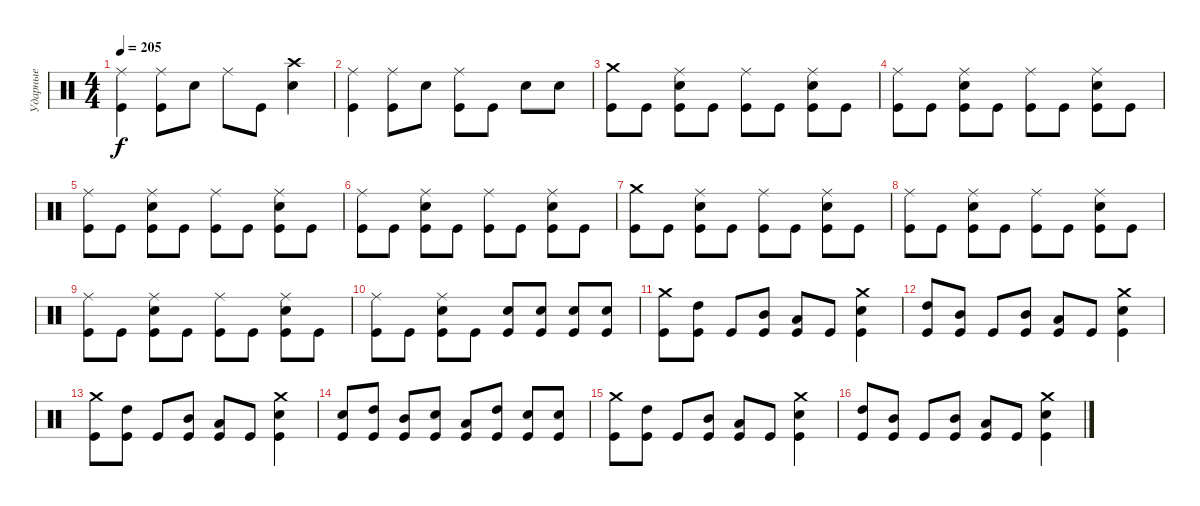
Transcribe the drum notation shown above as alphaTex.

\track ("Ударные" "Ударные") {instrument percussion}
\staff {score}
\articulation defaults
\ts (4 4)
\tempo 205
\clef neutral
\ks c
("Ride (middle)" "Kick (hit)").4{dy f} ("Ride (middle)" "Kick (hit)").8 "Snare (hit) 2".8 "Ride (middle)".8 "Kick (hit)".8 ("Crash high (hit)" "Snare (hit) 2").4 |
("Ride (middle)" "Kick (hit)").4 ("Ride (middle)" "Kick (hit)").8 "Snare (hit) 2".8 ("Ride (middle)" "Kick (hit)").8 "Kick (hit)".8 "Snare (hit) 2".8 "Snare (hit) 2".8 |
("Crash medium (hit)" "Kick (hit)").8 "Kick (hit)".8 ("Ride (middle)" "Snare (hit) 2" "Kick (hit)").8 "Kick (hit)".8 ("Ride (middle)" "Kick (hit)").8 "Kick (hit)".8 ("Ride (middle)" "Snare (hit) 2" "Kick (hit)").8 "Kick (hit)".8 |
("Ride (middle)" "Kick (hit)").8 "Kick (hit)".8 ("Ride (middle)" "Snare (hit) 2" "Kick (hit)").8 "Kick (hit)".8 ("Ride (middle)" "Kick (hit)").8 "Kick (hit)".8 ("Ride (middle)" "Snare (hit) 2" "Kick (hit)").8 "Kick (hit)".8 |
("Ride (middle)" "Kick (hit)").8 "Kick (hit)".8 ("Ride (middle)" "Snare (hit) 2" "Kick (hit)").8 "Kick (hit)".8 ("Ride (middle)" "Kick (hit)").8 "Kick (hit)".8 ("Ride (middle)" "Snare (hit) 2" "Kick (hit)").8 "Kick (hit)".8 |
("Ride (middle)" "Kick (hit)").8 "Kick (hit)".8 ("Ride (middle)" "Snare (hit) 2" "Kick (hit)").8 "Kick (hit)".8 ("Ride (middle)" "Kick (hit)").8 "Kick (hit)".8 ("Ride (middle)" "Snare (hit) 2" "Kick (hit)").8 "Kick (hit)".8 |
("Crash medium (hit)" "Kick (hit)").8 "Kick (hit)".8 ("Ride (middle)" "Snare (hit) 2" "Kick (hit)").8 "Kick (hit)".8 ("Ride (middle)" "Kick (hit)").8 "Kick (hit)".8 ("Ride (middle)" "Snare (hit) 2" "Kick (hit)").8 "Kick (hit)".8 |
("Ride (middle)" "Kick (hit)").8 "Kick (hit)".8 ("Ride (middle)" "Snare (hit) 2" "Kick (hit)").8 "Kick (hit)".8 ("Ride (middle)" "Kick (hit)").8 "Kick (hit)".8 ("Ride (middle)" "Snare (hit) 2" "Kick (hit)").8 "Kick (hit)".8 |
("Ride (middle)" "Kick (hit)").8 "Kick (hit)".8 ("Ride (middle)" "Snare (hit) 2" "Kick (hit)").8 "Kick (hit)".8 ("Ride (middle)" "Kick (hit)").8 "Kick (hit)".8 ("Ride (middle)" "Snare (hit) 2" "Kick (hit)").8 "Kick (hit)".8 |
("Ride (middle)" "Kick (hit)").8 "Kick (hit)".8 ("Ride (middle)" "Snare (hit) 2" "Kick (hit)").8 "Kick (hit)".8 ("Snare (hit) 2" "Kick (hit)").8 ("Snare (hit) 2" "Kick (hit)").8 ("Snare (hit) 2" "Kick (hit)").8 ("Snare (hit) 2" "Kick (hit)").8 |
("Crash medium (hit)" "Kick (hit)").8 ("High Tom (hit)" "Kick (hit)").8 "Kick (hit)".8 ("Mid Tom (hit)" "Kick (hit)").8 ("Low Tom (hit)" "Kick (hit)").8 "Kick (hit)".8 ("Crash medium (hit)" "Snare (hit) 2" "Kick (hit)").4 |
("High Tom (hit)" "Kick (hit)").8 ("Mid Tom (hit)" "Kick (hit)").8 "Kick (hit)".8 ("Mid Tom (hit)" "Kick (hit)").8 ("Low Tom (hit)" "Kick (hit)").8 "Kick (hit)".8 ("Crash medium (hit)" "Snare (hit) 2" "Kick (hit)").4 |
("Crash medium (hit)" "Kick (hit)").8 ("High Tom (hit)" "Kick (hit)").8 "Kick (hit)".8 ("Mid Tom (hit)" "Kick (hit)").8 ("Low Tom (hit)" "Kick (hit)").8 "Kick (hit)".8 ("Crash medium (hit)" "Snare (hit) 2" "Kick (hit)").4 |
("Snare (hit) 2" "Kick (hit)").8 ("High Tom (hit)" "Kick (hit)").8 ("Mid Tom (hit)" "Kick (hit)").8 ("Snare (hit) 2" "Kick (hit)").8 ("Low Tom (hit)" "Kick (hit)").8 ("High Tom (hit)" "Kick (hit)").8 ("Snare (hit) 2" "Kick (hit)").8 ("Snare (hit) 2" "Kick (hit)").8 |
("Crash medium (hit)" "Kick (hit)").8 ("High Tom (hit)" "Kick (hit)").8 "Kick (hit)".8 ("Mid Tom (hit)" "Kick (hit)").8 ("Low Tom (hit)" "Kick (hit)").8 "Kick (hit)".8 ("Crash medium (hit)" "Snare (hit) 2" "Kick (hit)").4 |
("High Tom (hit)" "Kick (hit)").8 ("Mid Tom (hit)" "Kick (hit)").8 "Kick (hit)".8 ("Mid Tom (hit)" "Kick (hit)").8 ("Low Tom (hit)" "Kick (hit)").8 "Kick (hit)".8 ("Crash medium (hit)" "Snare (hit) 2" "Kick (hit)").4
